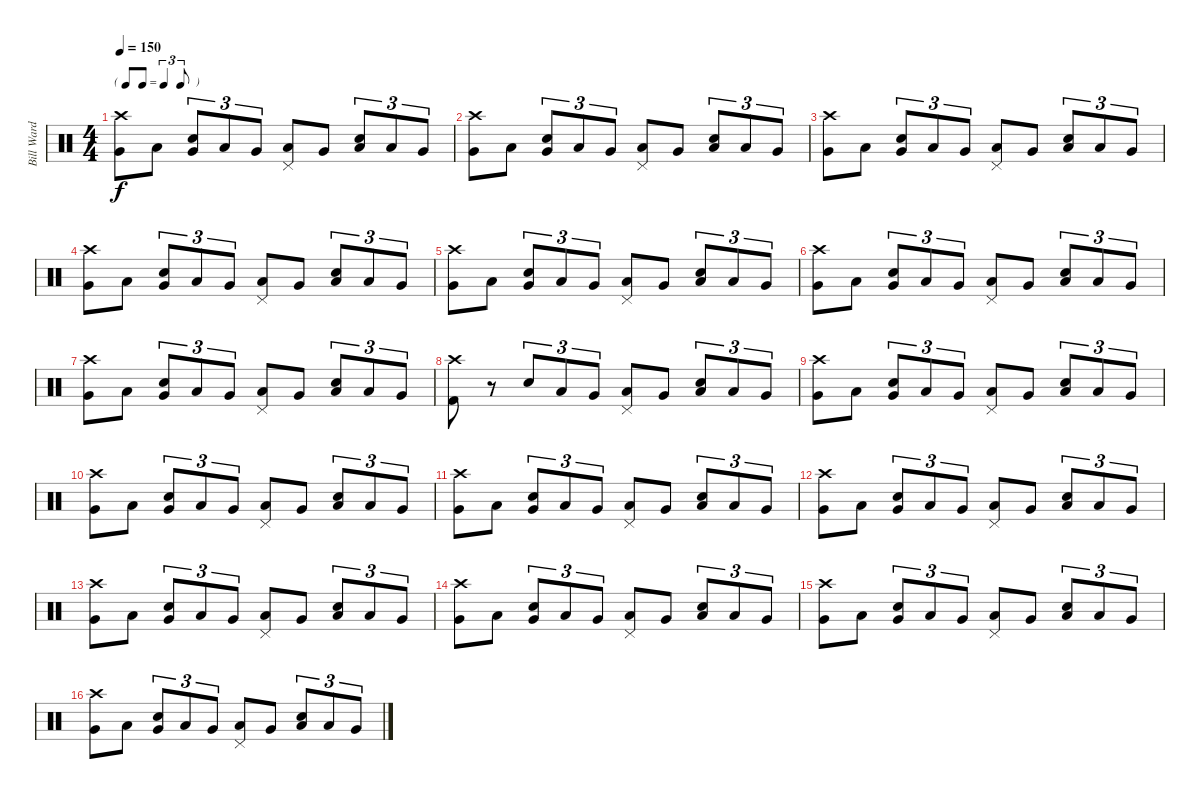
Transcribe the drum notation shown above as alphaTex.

\track ("Bill Ward" "Bill Ward") {instrument percussion}
\staff {score}
\articulation defaults
\ts (4 4)
\tf triplet8th
\tempo 150
\clef neutral
\ks c
("Crash high (hit)" "Very Low Tom (hit)").8{dy f} "Low Tom (hit)".8 ("Snare (hit) 2" "Very Low Tom (hit)").8{tu (3 2)} "Low Tom (hit)".8{tu (3 2)} "Very Low Tom (hit)".8{tu (3 2)} ("Pedal Hi-Hat (hit)" "Low Tom (hit)").8 "Very Low Tom (hit)".8 ("Snare (hit) 2" "Low Tom (hit)").8{tu (3 2)} "Low Tom (hit)".8{tu (3 2)} "Very Low Tom (hit)".8{tu (3 2)} |
("Crash high (hit)" "Very Low Tom (hit)").8 "Low Tom (hit)".8 ("Snare (hit) 2" "Very Low Tom (hit)").8{tu (3 2)} "Low Tom (hit)".8{tu (3 2)} "Very Low Tom (hit)".8{tu (3 2)} ("Pedal Hi-Hat (hit)" "Low Tom (hit)").8 "Very Low Tom (hit)".8 ("Snare (hit) 2" "Low Tom (hit)").8{tu (3 2)} "Low Tom (hit)".8{tu (3 2)} "Very Low Tom (hit)".8{tu (3 2)} |
("Crash high (hit)" "Very Low Tom (hit)").8 "Low Tom (hit)".8 ("Snare (hit) 2" "Very Low Tom (hit)").8{tu (3 2)} "Low Tom (hit)".8{tu (3 2)} "Very Low Tom (hit)".8{tu (3 2)} ("Pedal Hi-Hat (hit)" "Low Tom (hit)").8 "Very Low Tom (hit)".8 ("Snare (hit) 2" "Low Tom (hit)").8{tu (3 2)} "Low Tom (hit)".8{tu (3 2)} "Very Low Tom (hit)".8{tu (3 2)} |
("Crash high (hit)" "Very Low Tom (hit)").8 "Low Tom (hit)".8 ("Snare (hit) 2" "Very Low Tom (hit)").8{tu (3 2)} "Low Tom (hit)".8{tu (3 2)} "Very Low Tom (hit)".8{tu (3 2)} ("Pedal Hi-Hat (hit)" "Low Tom (hit)").8 "Very Low Tom (hit)".8 ("Snare (hit) 2" "Low Tom (hit)").8{tu (3 2)} "Low Tom (hit)".8{tu (3 2)} "Very Low Tom (hit)".8{tu (3 2)} |
("Crash high (hit)" "Very Low Tom (hit)").8 "Low Tom (hit)".8 ("Snare (hit) 2" "Very Low Tom (hit)").8{tu (3 2)} "Low Tom (hit)".8{tu (3 2)} "Very Low Tom (hit)".8{tu (3 2)} ("Pedal Hi-Hat (hit)" "Low Tom (hit)").8 "Very Low Tom (hit)".8 ("Snare (hit) 2" "Low Tom (hit)").8{tu (3 2)} "Low Tom (hit)".8{tu (3 2)} "Very Low Tom (hit)".8{tu (3 2)} |
("Crash high (hit)" "Very Low Tom (hit)").8 "Low Tom (hit)".8 ("Snare (hit) 2" "Very Low Tom (hit)").8{tu (3 2)} "Low Tom (hit)".8{tu (3 2)} "Very Low Tom (hit)".8{tu (3 2)} ("Pedal Hi-Hat (hit)" "Low Tom (hit)").8 "Very Low Tom (hit)".8 ("Snare (hit) 2" "Low Tom (hit)").8{tu (3 2)} "Low Tom (hit)".8{tu (3 2)} "Very Low Tom (hit)".8{tu (3 2)} |
("Crash high (hit)" "Very Low Tom (hit)").8 "Low Tom (hit)".8 ("Snare (hit) 2" "Very Low Tom (hit)").8{tu (3 2)} "Low Tom (hit)".8{tu (3 2)} "Very Low Tom (hit)".8{tu (3 2)} ("Pedal Hi-Hat (hit)" "Low Tom (hit)").8 "Very Low Tom (hit)".8 ("Snare (hit) 2" "Low Tom (hit)").8{tu (3 2)} "Low Tom (hit)".8{tu (3 2)} "Very Low Tom (hit)".8{tu (3 2)} |
("Crash high (hit)" "Kick (hit) 2").8 r.8 "Snare (hit) 2".8{tu (3 2)} "Low Tom (hit)".8{tu (3 2)} "Very Low Tom (hit)".8{tu (3 2)} ("Pedal Hi-Hat (hit)" "Low Tom (hit)").8 "Very Low Tom (hit)".8 ("Snare (hit) 2" "Low Tom (hit)").8{tu (3 2)} "Low Tom (hit)".8{tu (3 2)} "Very Low Tom (hit)".8{tu (3 2)} |
("Crash high (hit)" "Very Low Tom (hit)").8 "Low Tom (hit)".8 ("Snare (hit) 2" "Very Low Tom (hit)").8{tu (3 2)} "Low Tom (hit)".8{tu (3 2)} "Very Low Tom (hit)".8{tu (3 2)} ("Pedal Hi-Hat (hit)" "Low Tom (hit)").8 "Very Low Tom (hit)".8 ("Snare (hit) 2" "Low Tom (hit)").8{tu (3 2)} "Low Tom (hit)".8{tu (3 2)} "Very Low Tom (hit)".8{tu (3 2)} |
("Crash high (hit)" "Very Low Tom (hit)").8 "Low Tom (hit)".8 ("Snare (hit) 2" "Very Low Tom (hit)").8{tu (3 2)} "Low Tom (hit)".8{tu (3 2)} "Very Low Tom (hit)".8{tu (3 2)} ("Pedal Hi-Hat (hit)" "Low Tom (hit)").8 "Very Low Tom (hit)".8 ("Snare (hit) 2" "Low Tom (hit)").8{tu (3 2)} "Low Tom (hit)".8{tu (3 2)} "Very Low Tom (hit)".8{tu (3 2)} |
("Crash high (hit)" "Very Low Tom (hit)").8 "Low Tom (hit)".8 ("Snare (hit) 2" "Very Low Tom (hit)").8{tu (3 2)} "Low Tom (hit)".8{tu (3 2)} "Very Low Tom (hit)".8{tu (3 2)} ("Pedal Hi-Hat (hit)" "Low Tom (hit)").8 "Very Low Tom (hit)".8 ("Snare (hit) 2" "Low Tom (hit)").8{tu (3 2)} "Low Tom (hit)".8{tu (3 2)} "Very Low Tom (hit)".8{tu (3 2)} |
("Crash high (hit)" "Very Low Tom (hit)").8 "Low Tom (hit)".8 ("Snare (hit) 2" "Very Low Tom (hit)").8{tu (3 2)} "Low Tom (hit)".8{tu (3 2)} "Very Low Tom (hit)".8{tu (3 2)} ("Pedal Hi-Hat (hit)" "Low Tom (hit)").8 "Very Low Tom (hit)".8 ("Snare (hit) 2" "Low Tom (hit)").8{tu (3 2)} "Low Tom (hit)".8{tu (3 2)} "Very Low Tom (hit)".8{tu (3 2)} |
("Crash high (hit)" "Very Low Tom (hit)").8 "Low Tom (hit)".8 ("Snare (hit) 2" "Very Low Tom (hit)").8{tu (3 2)} "Low Tom (hit)".8{tu (3 2)} "Very Low Tom (hit)".8{tu (3 2)} ("Pedal Hi-Hat (hit)" "Low Tom (hit)").8 "Very Low Tom (hit)".8 ("Snare (hit) 2" "Low Tom (hit)").8{tu (3 2)} "Low Tom (hit)".8{tu (3 2)} "Very Low Tom (hit)".8{tu (3 2)} |
("Crash high (hit)" "Very Low Tom (hit)").8 "Low Tom (hit)".8 ("Snare (hit) 2" "Very Low Tom (hit)").8{tu (3 2)} "Low Tom (hit)".8{tu (3 2)} "Very Low Tom (hit)".8{tu (3 2)} ("Pedal Hi-Hat (hit)" "Low Tom (hit)").8 "Very Low Tom (hit)".8 ("Snare (hit) 2" "Low Tom (hit)").8{tu (3 2)} "Low Tom (hit)".8{tu (3 2)} "Very Low Tom (hit)".8{tu (3 2)} |
("Crash high (hit)" "Very Low Tom (hit)").8 "Low Tom (hit)".8 ("Snare (hit) 2" "Very Low Tom (hit)").8{tu (3 2)} "Low Tom (hit)".8{tu (3 2)} "Very Low Tom (hit)".8{tu (3 2)} ("Pedal Hi-Hat (hit)" "Low Tom (hit)").8 "Very Low Tom (hit)".8 ("Snare (hit) 2" "Low Tom (hit)").8{tu (3 2)} "Low Tom (hit)".8{tu (3 2)} "Very Low Tom (hit)".8{tu (3 2)} |
("Crash high (hit)" "Very Low Tom (hit)").8 "Low Tom (hit)".8 ("Snare (hit) 2" "Very Low Tom (hit)").8{tu (3 2)} "Low Tom (hit)".8{tu (3 2)} "Very Low Tom (hit)".8{tu (3 2)} ("Pedal Hi-Hat (hit)" "Low Tom (hit)").8 "Very Low Tom (hit)".8 ("Snare (hit) 2" "Low Tom (hit)").8{tu (3 2)} "Low Tom (hit)".8{tu (3 2)} "Very Low Tom (hit)".8{tu (3 2)}
